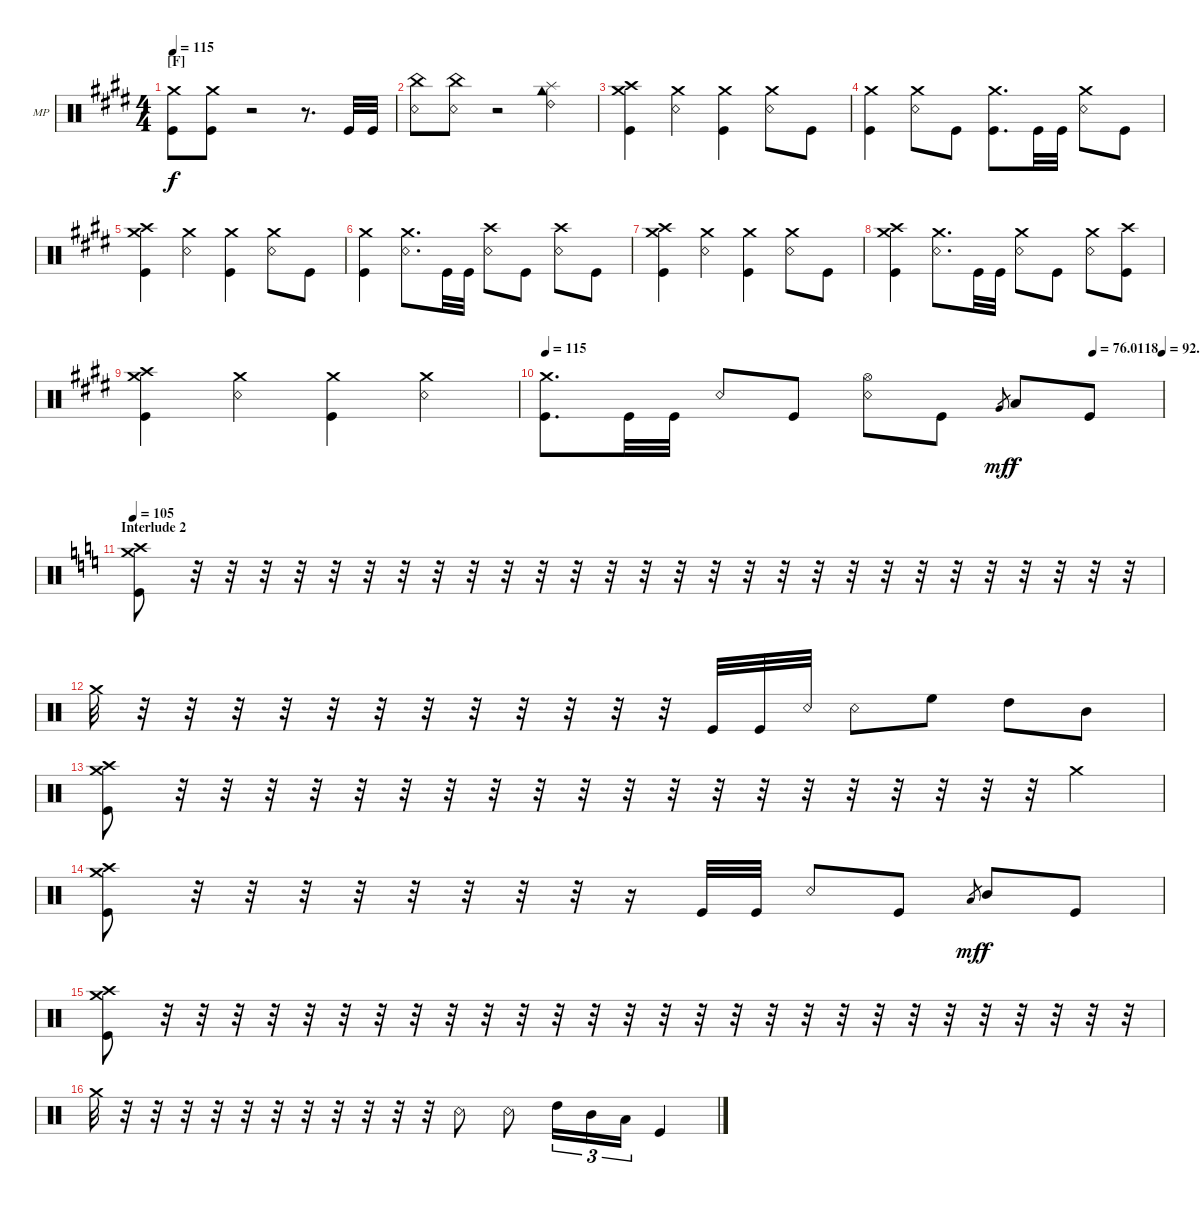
\defaultSystemsLayout 4
\bracketExtendMode groupsimilarinstruments
\firstSystemTrackNameOrientation horizontal
\otherSystemsTrackNameOrientation horizontal
\track ("Mike Portnoy" "MP") {instrument percussion}
\staff {score}
\articulation defaults
\ts (4 4)
\section ("F" "")
\tempo 115
\clef neutral
\ks e
("Crash medium (hit)" "Kick (hit)").8{dy f} ("Crash medium (hit)" "Kick (hit)").8 r.2 r.8{d} "Kick (hit)".32 "Kick (hit)".32 |
("China (hit)" "Snare (rim shot)").8 ("China (hit)" "Snare (rim shot)").8 r.2 ("Cowbell high (hit)" "Splash (hit)" "Ride (bell) 2").4 |
("Crash medium (hit)" "Crash high (hit)" "Kick (hit)").4 ("Crash medium (hit)" "Snare (rim shot)").4 ("Crash medium (hit)" "Kick (hit)").4 ("Crash medium (hit)" "Snare (rim shot)").8 "Kick (hit)".8 |
("Crash medium (hit)" "Kick (hit)").4 ("Crash medium (hit)" "Snare (rim shot)").8 "Kick (hit)".8 ("Crash medium (hit)" "Kick (hit)").8{d} "Kick (hit)".32 "Kick (hit)".32 ("Crash medium (hit)" "Snare (rim shot)").8 "Kick (hit)".8 |
("Crash medium (hit)" "Crash high (hit)" "Kick (hit)").4 ("Crash medium (hit)" "Snare (rim shot)").4 ("Crash medium (hit)" "Kick (hit)").4 ("Crash medium (hit)" "Snare (rim shot)").8 "Kick (hit)".8 |
("Crash medium (hit)" "Kick (hit)").4 ("Crash medium (hit)" "Snare (rim shot)").8{d} "Kick (hit)".32 "Kick (hit)".32 ("Crash high (hit)" "Snare (rim shot)").8 "Kick (hit)".8 ("Crash high (hit)" "Snare (rim shot)").8 "Kick (hit)".8 |
("Crash medium (hit)" "Crash high (hit)" "Kick (hit)").4 ("Crash medium (hit)" "Snare (rim shot)").4 ("Crash medium (hit)" "Kick (hit)").4 ("Crash medium (hit)" "Snare (rim shot)").8 "Kick (hit)".8 |
("Crash medium (hit)" "Crash high (hit)" "Kick (hit)").4 ("Crash medium (hit)" "Snare (rim shot)").8{d} "Kick (hit)".32 "Kick (hit)".32 ("Crash medium (hit)" "Snare (rim shot)").8 "Kick (hit)".8 ("Crash medium (hit)" "Snare (rim shot)").8 ("Crash high (hit)" "Kick (hit)").8 |
("Crash medium (hit)" "Crash high (hit)" "Kick (hit)").4 ("Crash medium (hit)" "Snare (rim shot)").4 ("Crash medium (hit)" "Kick (hit)").4 ("Crash medium (hit)" "Snare (rim shot)").4 |
\tempo 115
\tempo (76.0118 0.8875)
\tempo (92.8353 1)
("Crash medium (hit)" "Kick (hit)").8{d} "Kick (hit)".32 "Kick (hit)".32 "Snare (rim shot)".8 "Kick (hit)".8 ("Hi-Hat (open)" "Snare (rim shot)").8 "Kick (hit)".8 "Very Low Tom (hit)".8{gr dy mf} "Low Tom (hit)".8{dy f} "Kick (hit)".8 |
\section ("" "Interlude 2")
\tempo 105
\ks c
("Crash medium (hit)" "Crash high (hit)" "Kick (hit)").8 r.32 r.32 r.32 r.32 r.32 r.32 r.32 r.32 r.32 r.32 r.32 r.32 r.32 r.32 r.32 r.32 r.32 r.32 r.32 r.32 r.32 r.32 r.32 r.32 r.32 r.32 r.32 r.32 |
"Crash medium (hit)".32 r.32 r.32 r.32 r.32 r.32 r.32 r.32 r.32 r.32 r.32 r.32 r.32 "Kick (hit)".32 "Kick (hit)".32 "Snare (rim shot)".32 "Snare (rim shot)".8 "High Floor Tom (hit)".8 "High Tom (hit)".8 "Mid Tom (hit)".8 |
("Crash medium (hit)" "Crash high (hit)" "Kick (hit)").8 r.32 r.32 r.32 r.32 r.32 r.32 r.32 r.32 r.32 r.32 r.32 r.32 r.32 r.32 r.32 r.32 r.32 r.32 r.32 r.32 "Crash medium (hit)".4 |
("Crash medium (hit)" "Crash high (hit)" "Kick (hit)").8 r.32 r.32 r.32 r.32 r.32 r.32 r.32 r.32 r.16 "Kick (hit)".32 "Kick (hit)".32 "Snare (rim shot)".8 "Kick (hit)".8 "Low Tom (hit)".8{gr dy mf} "Mid Tom (hit)".8{dy f} "Kick (hit)".8 |
("Crash medium (hit)" "Crash high (hit)" "Kick (hit)").8 r.32 r.32 r.32 r.32 r.32 r.32 r.32 r.32 r.32 r.32 r.32 r.32 r.32 r.32 r.32 r.32 r.32 r.32 r.32 r.32 r.32 r.32 r.32 r.32 r.32 r.32 r.32 r.32 |
"Crash medium (hit)".32 r.32 r.32 r.32 r.32 r.32 r.32 r.32 r.32 r.32 r.32 r.32 "Snare (rim shot)".8 "Snare (rim shot)".8 "High Tom (hit)".16{tu (3 2)} "Mid Tom (hit)".16{tu (3 2)} "Low Tom (hit)".16{tu (3 2)} "Kick (hit)".4
